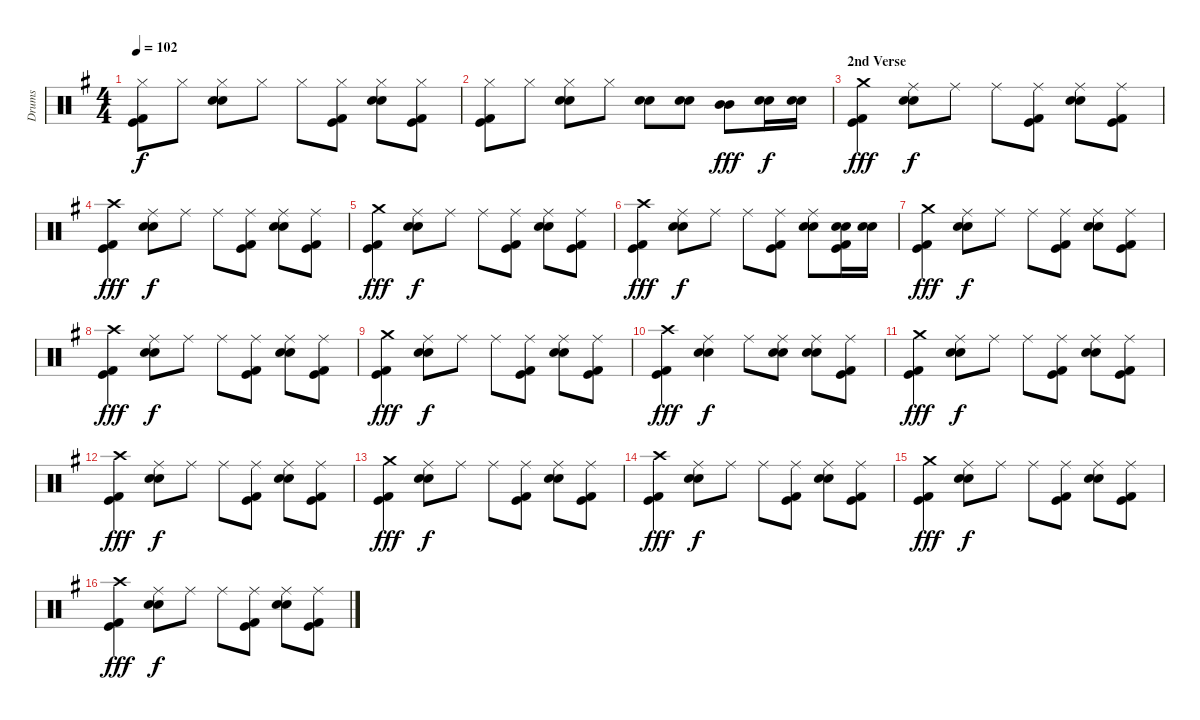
\track ("Drums" "Drums") {instrument percussion}
\staff {score}
\articulation defaults
\ts (4 4)
\tempo 102
\clef neutral
\ks g
("Hi-Hat (closed)" "Kick (hit)" "Kick (hit) 2").8{dy f} "Hi-Hat (closed)".8 ("Hi-Hat (closed)" "Electric Snare (hit)" "Snare (hit) 2").8 "Hi-Hat (closed)".8 "Hi-Hat (closed)".8 ("Hi-Hat (closed)" "Kick (hit)" "Kick (hit) 2").8 ("Hi-Hat (closed)" "Electric Snare (hit)" "Snare (hit) 2").8 ("Hi-Hat (closed)" "Kick (hit)" "Kick (hit) 2").8 |
("Hi-Hat (closed)" "Kick (hit)" "Kick (hit) 2").8 "Hi-Hat (closed)".8 ("Hi-Hat (closed)" "Electric Snare (hit)" "Snare (hit) 2").8 "Hi-Hat (closed)".8 ("Electric Snare (hit)" "Snare (hit) 2").8 ("Electric Snare (hit)" "Snare (hit) 2").8 ("Mid Tom (hit)" "Mid Tom (hit)").8{dy fff} ("Electric Snare (hit)" "Snare (hit) 2").16{dy f} ("Electric Snare (hit)" "Snare (hit) 2").16 |
\section ("" "2nd Verse")
("Crash medium (hit)" "Kick (hit)" "Kick (hit) 2").4{dy fff} ("Ride (middle)" "Electric Snare (hit)" "Snare (hit) 2").8{dy f} "Ride (middle)".8 "Ride (middle)".8 ("Ride (middle)" "Kick (hit)" "Kick (hit) 2").8 ("Ride (middle)" "Electric Snare (hit)" "Snare (hit) 2").8 ("Ride (middle)" "Kick (hit)" "Kick (hit) 2").8 |
("Crash high (hit)" "Kick (hit)" "Kick (hit) 2").4{dy fff} ("Ride (middle)" "Electric Snare (hit)" "Snare (hit) 2").8{dy f} "Ride (middle)".8 "Ride (middle)".8 ("Ride (middle)" "Kick (hit)" "Kick (hit) 2").8 ("Ride (middle)" "Electric Snare (hit)" "Snare (hit) 2").8 ("Ride (middle)" "Kick (hit)" "Kick (hit) 2").8 |
("Crash medium (hit)" "Kick (hit)" "Kick (hit) 2").4{dy fff} ("Ride (middle)" "Electric Snare (hit)" "Snare (hit) 2").8{dy f} "Ride (middle)".8 "Ride (middle)".8 ("Ride (middle)" "Kick (hit)" "Kick (hit) 2").8 ("Ride (middle)" "Electric Snare (hit)" "Snare (hit) 2").8 ("Ride (middle)" "Kick (hit)" "Kick (hit) 2").8 |
("Crash high (hit)" "Kick (hit)" "Kick (hit) 2").4{dy fff} ("Ride (middle)" "Electric Snare (hit)" "Snare (hit) 2").8{dy f} "Ride (middle)".8 "Ride (middle)".8 ("Ride (middle)" "Kick (hit)" "Kick (hit) 2").8 ("Ride (middle)" "Electric Snare (hit)" "Snare (hit) 2").8 ("Electric Snare (hit)" "Snare (hit) 2" "Kick (hit)" "Kick (hit) 2").16 ("Electric Snare (hit)" "Snare (hit) 2").16 |
("Crash medium (hit)" "Kick (hit)" "Kick (hit) 2").4{dy fff} ("Ride (middle)" "Electric Snare (hit)" "Snare (hit) 2").8{dy f} "Ride (middle)".8 "Ride (middle)".8 ("Ride (middle)" "Kick (hit)" "Kick (hit) 2").8 ("Ride (middle)" "Electric Snare (hit)" "Snare (hit) 2").8 ("Ride (middle)" "Kick (hit)" "Kick (hit) 2").8 |
("Crash high (hit)" "Kick (hit)" "Kick (hit) 2").4{dy fff} ("Ride (middle)" "Electric Snare (hit)" "Snare (hit) 2").8{dy f} "Ride (middle)".8 "Ride (middle)".8 ("Ride (middle)" "Kick (hit)" "Kick (hit) 2").8 ("Ride (middle)" "Electric Snare (hit)" "Snare (hit) 2").8 ("Ride (middle)" "Kick (hit)" "Kick (hit) 2").8 |
("Crash medium (hit)" "Kick (hit)" "Kick (hit) 2").4{dy fff} ("Ride (middle)" "Electric Snare (hit)" "Snare (hit) 2").8{dy f} "Ride (middle)".8 "Ride (middle)".8 ("Ride (middle)" "Kick (hit)" "Kick (hit) 2").8 ("Ride (middle)" "Electric Snare (hit)" "Snare (hit) 2").8 ("Ride (middle)" "Kick (hit)" "Kick (hit) 2").8 |
("Crash high (hit)" "Kick (hit)" "Kick (hit) 2").4{dy fff} ("Ride (middle)" "Electric Snare (hit)" "Snare (hit) 2").4{dy f} "Ride (middle)".8 ("Ride (middle)" "Electric Snare (hit)" "Snare (hit) 2").8 ("Ride (middle)" "Electric Snare (hit)" "Snare (hit) 2").8 ("Ride (middle)" "Kick (hit)" "Kick (hit) 2").8 |
("Crash medium (hit)" "Kick (hit)" "Kick (hit) 2").4{dy fff} ("Ride (middle)" "Electric Snare (hit)" "Snare (hit) 2").8{dy f} "Ride (middle)".8 "Ride (middle)".8 ("Ride (middle)" "Kick (hit)" "Kick (hit) 2").8 ("Ride (middle)" "Electric Snare (hit)" "Snare (hit) 2").8 ("Ride (middle)" "Kick (hit)" "Kick (hit) 2").8 |
("Crash high (hit)" "Kick (hit)" "Kick (hit) 2").4{dy fff} ("Ride (middle)" "Electric Snare (hit)" "Snare (hit) 2").8{dy f} "Ride (middle)".8 "Ride (middle)".8 ("Ride (middle)" "Kick (hit)" "Kick (hit) 2").8 ("Ride (middle)" "Electric Snare (hit)" "Snare (hit) 2").8 ("Ride (middle)" "Kick (hit)" "Kick (hit) 2").8 |
("Crash medium (hit)" "Kick (hit)" "Kick (hit) 2").4{dy fff} ("Ride (middle)" "Electric Snare (hit)" "Snare (hit) 2").8{dy f} "Ride (middle)".8 "Ride (middle)".8 ("Ride (middle)" "Kick (hit)" "Kick (hit) 2").8 ("Ride (middle)" "Electric Snare (hit)" "Snare (hit) 2").8 ("Ride (middle)" "Kick (hit)" "Kick (hit) 2").8 |
("Crash high (hit)" "Kick (hit)" "Kick (hit) 2").4{dy fff} ("Ride (middle)" "Electric Snare (hit)" "Snare (hit) 2").8{dy f} "Ride (middle)".8 "Ride (middle)".8 ("Ride (middle)" "Kick (hit)" "Kick (hit) 2").8 ("Ride (middle)" "Electric Snare (hit)" "Snare (hit) 2").8 ("Ride (middle)" "Kick (hit)" "Kick (hit) 2").8 |
("Crash medium (hit)" "Kick (hit)" "Kick (hit) 2").4{dy fff} ("Ride (middle)" "Electric Snare (hit)" "Snare (hit) 2").8{dy f} "Ride (middle)".8 "Ride (middle)".8 ("Ride (middle)" "Kick (hit)" "Kick (hit) 2").8 ("Ride (middle)" "Electric Snare (hit)" "Snare (hit) 2").8 ("Ride (middle)" "Kick (hit)" "Kick (hit) 2").8 |
("Crash high (hit)" "Kick (hit)" "Kick (hit) 2").4{dy fff} ("Ride (middle)" "Electric Snare (hit)" "Snare (hit) 2").8{dy f} "Ride (middle)".8 "Ride (middle)".8 ("Ride (middle)" "Kick (hit)" "Kick (hit) 2").8 ("Ride (middle)" "Electric Snare (hit)" "Snare (hit) 2").8 ("Ride (middle)" "Kick (hit)" "Kick (hit) 2").8
